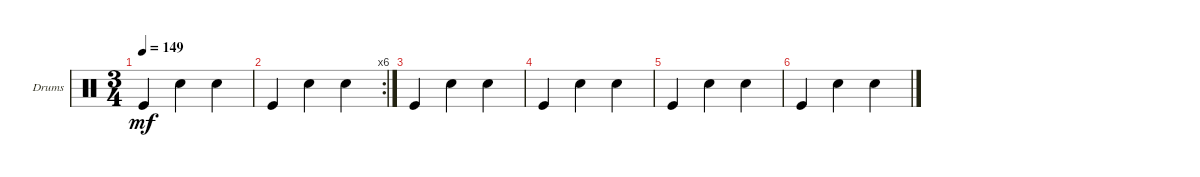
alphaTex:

\defaultSystemsLayout 4
\bracketExtendMode groupsimilarinstruments
\firstSystemTrackNameOrientation horizontal
\otherSystemsTrackNameOrientation horizontal
\chordDiagramsInScore
\track ("Drumkit" "Drums") {instrument percussion}
\staff {score}
\articulation defaults
\ts (3 4)
\tempo 149
\clef neutral
\ks c "Kick (hit)".4{dy mf} "Snare (hit) 2".4 "Snare (hit) 2".4
|
\rc 6 "Kick (hit)".4 "Snare (hit) 2".4 "Snare (hit) 2".4
|
"Kick (hit)".4 "Snare (hit) 2".4 "Snare (hit) 2".4 |
"Kick (hit)".4 "Snare (hit) 2".4 "Snare (hit) 2".4 |
"Kick (hit)".4 "Snare (hit) 2".4 "Snare (hit) 2".4 |
"Kick (hit)".4 "Snare (hit) 2".4 "Snare (hit) 2".4
